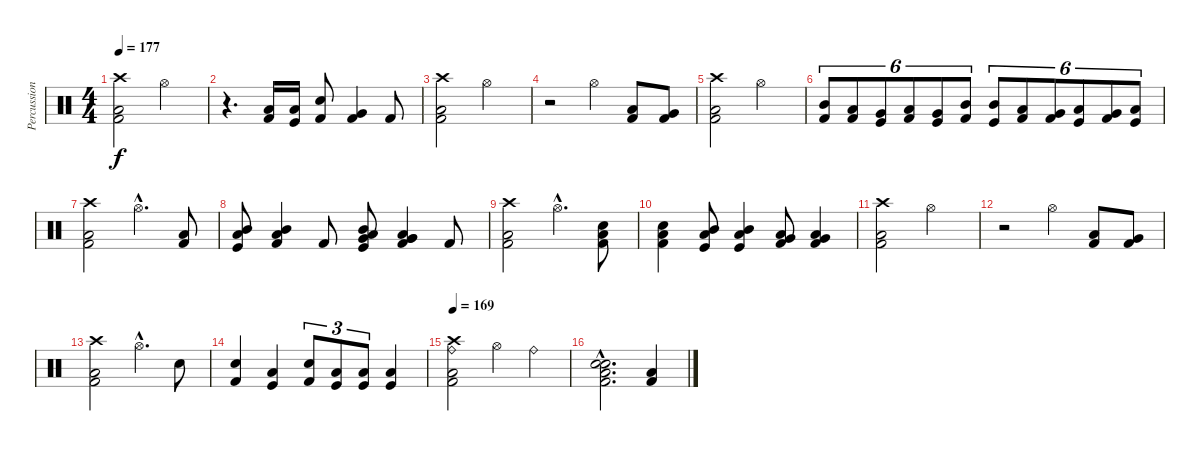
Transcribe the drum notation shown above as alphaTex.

\track ("Percussions" "Percussion") {instrument percussion}
\staff {score}
\articulation defaults
\ts (4 4)
\tempo 177
\clef neutral
\ks c
("Crash high (hit)" "Low Tom (hit)" "Kick (hit) 2").2{dy f} "Hi-Hat (open)".2 |
r.4{d} ("Low Floor Tom (hit)" "Kick (hit) 2").16 ("Kick (hit)" "Low Tom (hit)").16 ("Kick (hit) 2" "Snare (hit) 2").8 ("Very Low Tom (hit)" "Kick (hit) 2").4 "Kick (hit) 2".8 |
("Crash high (hit)" "Low Tom (hit)" "Kick (hit) 2").2 "Hi-Hat (open)".2 |
r.2 "Hi-Hat (open)".4 ("Kick (hit) 2" "Low Tom (hit)").8 ("Kick (hit) 2" "Very Low Tom (hit)").8 |
("Crash high (hit)" "Low Tom (hit)" "Kick (hit) 2").2 "Hi-Hat (open)".2 |
("Mid Tom (hit)" "Kick (hit) 2").8{tu (6 4)} ("Low Tom (hit)" "Kick (hit) 2").8{tu (6 4)} ("Very Low Tom (hit)" "Kick (hit)").8{tu (6 4)} ("Low Floor Tom (hit)" "Kick (hit) 2").8{tu (6 4)} ("Very Low Tom (hit)" "Kick (hit)").8{tu (6 4)} ("Mid Tom (hit)" "Kick (hit) 2").8{tu (6 4)} ("Mid Tom (hit)" "Kick (hit)").8{tu (6 4)} ("Low Tom (hit)" "Kick (hit) 2").8{tu (6 4)} ("Very Low Tom (hit)" "Kick (hit) 2").8{tu (6 4)} ("Low Floor Tom (hit)" "Kick (hit)").8{tu (6 4)} ("Very Low Tom (hit)" "Kick (hit) 2").8{tu (6 4)} ("Low Tom (hit)" "Kick (hit)").8{tu (6 4)} |
("Crash high (hit)" "Low Tom (hit)" "Kick (hit) 2").2 "Hi-Hat (open)"{hac}.4{d} ("Low Tom (hit)" "Kick (hit) 2").8 |
("Low Floor Tom (hit)" "Mid Tom (hit)" "Kick (hit)").8 ("Low Tom (hit)" "Mid Tom (hit)" "Kick (hit) 2").4 "Kick (hit) 2".8 ("Mid Tom (hit)" "Very Low Tom (hit)" "Low Tom (hit)" "Kick (hit)").8 ("Very Low Tom (hit)" "Very Low Tom (hit)" "Low Floor Tom (hit)" "Kick (hit) 2").4 "Kick (hit) 2".8 |
("Crash high (hit)" "Low Tom (hit)" "Kick (hit) 2").2 "Hi-Hat (open)"{hac}.4{d} ("Low Tom (hit)" "Electric Snare (hit)" "Kick (hit) 2").8 |
("Low Tom (hit)" "Electric Snare (hit)" "Kick (hit) 2").4 ("Mid Tom (hit)" "Low Tom (hit)" "Kick (hit)").8 ("Low Tom (hit)" "Mid Tom (hit)" "Kick (hit)").4 ("Very Low Tom (hit)" "Low Floor Tom (hit)" "Kick (hit) 2").8 ("Very Low Tom (hit)" "Low Floor Tom (hit)" "Kick (hit) 2").4 |
("Crash high (hit)" "Low Tom (hit)" "Kick (hit) 2").2 "Hi-Hat (open)".2 |
r.2 "Hi-Hat (open)".4 ("Kick (hit) 2" "Low Tom (hit)").8 ("Kick (hit) 2" "Very Low Tom (hit)").8 |
("Crash high (hit)" "Low Tom (hit)" "Kick (hit) 2").2 "Hi-Hat (open)"{hac}.4{d} "Electric Snare (hit)".8 |
("Electric Snare (hit)" "Kick (hit) 2").4 ("Low Tom (hit)" "Kick (hit)").4 ("Electric Snare (hit)" "Kick (hit) 2").8{tu (3 2)} ("Low Tom (hit)" "Kick (hit)").8{tu (3 2)} ("Low Tom (hit)" "Kick (hit)").8{tu (3 2)} ("Low Tom (hit)" "Kick (hit)").4 |
\tempo 169
("Ride (bell)" "Crash high (hit)" "Low Tom (hit)" "Kick (hit) 2").2{balance 4} "Hi-Hat (open)".4 "Ride (bell)".4 |
("Kick (hit) 2"{hac} "Low Tom (hit)"{hac} "Snare (hit) 2"{hac} "Electric Snare (hit)"{hac}).2{d} ("Low Tom (hit)" "Kick (hit) 2").4
